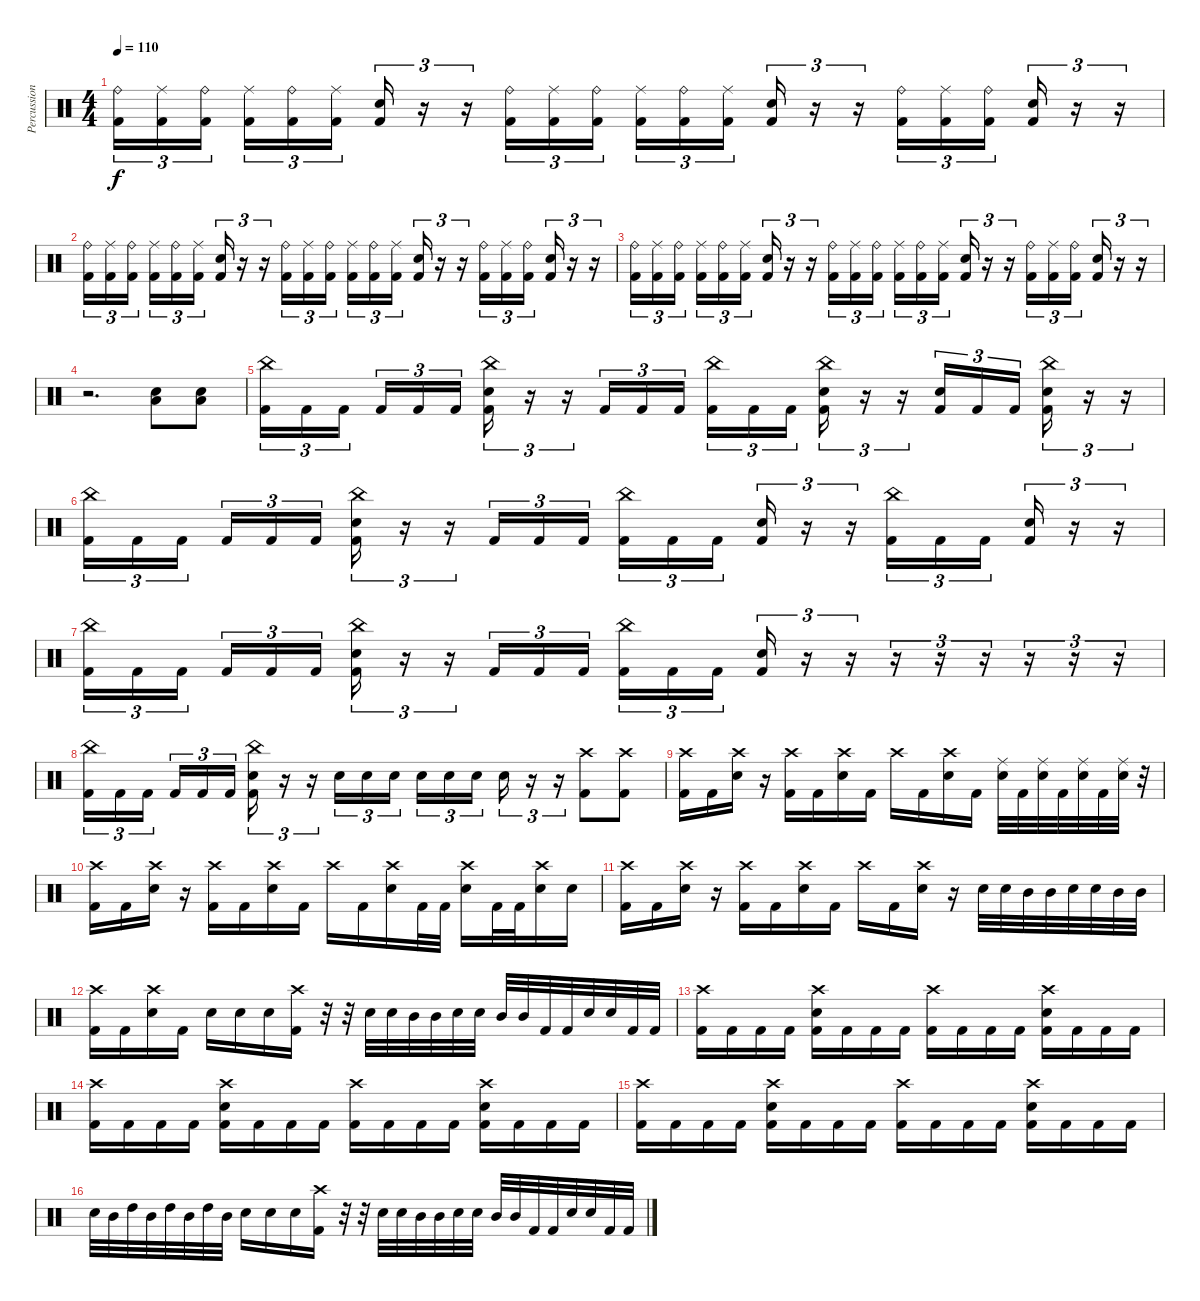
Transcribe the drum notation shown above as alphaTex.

\track ("Percussion" "Percussion") {instrument percussion}
\staff {score}
\articulation defaults
\ts (4 4)
\tempo 110
\clef neutral
\ks c
("Ride (bell)" "Kick (hit) 2").16{tu (3 2) dy f} ("Ride (middle)" "Kick (hit) 2").16{tu (3 2)} ("Ride (bell)" "Kick (hit) 2").16{tu (3 2) beam splitsecondary} ("Ride (middle)" "Kick (hit) 2").16{tu (3 2)} ("Ride (bell)" "Kick (hit) 2").16{tu (3 2)} ("Ride (middle)" "Kick (hit) 2").16{tu (3 2)} ("Electric Snare (hit)" "Kick (hit) 2").16{tu (3 2)} r.16{tu (3 2)} r.16{tu (3 2)} ("Ride (bell)" "Kick (hit) 2").16{tu (3 2)} ("Ride (middle)" "Kick (hit) 2").16{tu (3 2)} ("Ride (bell)" "Kick (hit) 2").16{tu (3 2)} ("Ride (middle)" "Kick (hit) 2").16{tu (3 2)} ("Ride (bell)" "Kick (hit) 2").16{tu (3 2)} ("Ride (middle)" "Kick (hit) 2").16{tu (3 2) beam splitsecondary} ("Electric Snare (hit)" "Kick (hit) 2").16{tu (3 2)} r.16{tu (3 2)} r.16{tu (3 2)} ("Ride (bell)" "Kick (hit) 2").16{tu (3 2)} ("Ride (middle)" "Kick (hit) 2").16{tu (3 2)} ("Ride (bell)" "Kick (hit) 2").16{tu (3 2) beam splitsecondary} ("Electric Snare (hit)" "Kick (hit) 2").16{tu (3 2)} r.16{tu (3 2)} r.16{tu (3 2)} |
("Ride (bell)" "Kick (hit) 2").16{tu (3 2)} ("Ride (middle)" "Kick (hit) 2").16{tu (3 2)} ("Ride (bell)" "Kick (hit) 2").16{tu (3 2) beam splitsecondary} ("Ride (middle)" "Kick (hit) 2").16{tu (3 2)} ("Ride (bell)" "Kick (hit) 2").16{tu (3 2)} ("Ride (middle)" "Kick (hit) 2").16{tu (3 2)} ("Electric Snare (hit)" "Kick (hit) 2").16{tu (3 2)} r.16{tu (3 2)} r.16{tu (3 2)} ("Ride (bell)" "Kick (hit) 2").16{tu (3 2)} ("Ride (middle)" "Kick (hit) 2").16{tu (3 2)} ("Ride (bell)" "Kick (hit) 2").16{tu (3 2)} ("Ride (middle)" "Kick (hit) 2").16{tu (3 2)} ("Ride (bell)" "Kick (hit) 2").16{tu (3 2)} ("Ride (middle)" "Kick (hit) 2").16{tu (3 2) beam splitsecondary} ("Electric Snare (hit)" "Kick (hit) 2").16{tu (3 2)} r.16{tu (3 2)} r.16{tu (3 2)} ("Ride (bell)" "Kick (hit) 2").16{tu (3 2)} ("Ride (middle)" "Kick (hit) 2").16{tu (3 2)} ("Ride (bell)" "Kick (hit) 2").16{tu (3 2) beam splitsecondary} ("Electric Snare (hit)" "Kick (hit) 2").16{tu (3 2)} r.16{tu (3 2)} r.16{tu (3 2)} |
("Ride (bell)" "Kick (hit) 2").16{tu (3 2)} ("Ride (middle)" "Kick (hit) 2").16{tu (3 2)} ("Ride (bell)" "Kick (hit) 2").16{tu (3 2) beam splitsecondary} ("Ride (middle)" "Kick (hit) 2").16{tu (3 2)} ("Ride (bell)" "Kick (hit) 2").16{tu (3 2)} ("Ride (middle)" "Kick (hit) 2").16{tu (3 2)} ("Electric Snare (hit)" "Kick (hit) 2").16{tu (3 2)} r.16{tu (3 2)} r.16{tu (3 2)} ("Ride (bell)" "Kick (hit) 2").16{tu (3 2)} ("Ride (middle)" "Kick (hit) 2").16{tu (3 2)} ("Ride (bell)" "Kick (hit) 2").16{tu (3 2)} ("Ride (middle)" "Kick (hit) 2").16{tu (3 2)} ("Ride (bell)" "Kick (hit) 2").16{tu (3 2)} ("Ride (middle)" "Kick (hit) 2").16{tu (3 2) beam splitsecondary} ("Electric Snare (hit)" "Kick (hit) 2").16{tu (3 2)} r.16{tu (3 2)} r.16{tu (3 2)} ("Ride (bell)" "Kick (hit) 2").16{tu (3 2)} ("Ride (middle)" "Kick (hit) 2").16{tu (3 2)} ("Ride (bell)" "Kick (hit) 2").16{tu (3 2) beam splitsecondary} ("Electric Snare (hit)" "Kick (hit) 2").16{tu (3 2)} r.16{tu (3 2)} r.16{tu (3 2)} |
r.2{d} ("Low Floor Tom (hit)" "Electric Snare (hit)").8 ("Low Floor Tom (hit)" "Electric Snare (hit)").8 |
("China (hit)" "Kick (hit) 2").16{tu (3 2)} "Kick (hit) 2".16{tu (3 2)} "Kick (hit) 2".16{tu (3 2) beam splitsecondary} "Kick (hit) 2".16{tu (3 2)} "Kick (hit) 2".16{tu (3 2)} "Kick (hit) 2".16{tu (3 2)} ("China (hit)" "Electric Snare (hit)" "Kick (hit) 2").16{tu (3 2)} r.16{tu (3 2)} r.16{tu (3 2)} "Kick (hit) 2".16{tu (3 2)} "Kick (hit) 2".16{tu (3 2)} "Kick (hit) 2".16{tu (3 2)} ("China (hit)" "Kick (hit) 2").16{tu (3 2)} "Kick (hit) 2".16{tu (3 2)} "Kick (hit) 2".16{tu (3 2) beam splitsecondary} ("China (hit)" "Electric Snare (hit)" "Kick (hit) 2").16{tu (3 2)} r.16{tu (3 2)} r.16{tu (3 2)} ("Electric Snare (hit)" "Kick (hit) 2").16{tu (3 2)} "Kick (hit) 2".16{tu (3 2)} "Kick (hit) 2".16{tu (3 2) beam splitsecondary} ("China (hit)" "Electric Snare (hit)" "Kick (hit) 2").16{tu (3 2)} r.16{tu (3 2)} r.16{tu (3 2)} |
("China (hit)" "Kick (hit) 2").16{tu (3 2)} "Kick (hit) 2".16{tu (3 2)} "Kick (hit) 2".16{tu (3 2) beam splitsecondary} "Kick (hit) 2".16{tu (3 2)} "Kick (hit) 2".16{tu (3 2)} "Kick (hit) 2".16{tu (3 2)} ("China (hit)" "Electric Snare (hit)" "Kick (hit) 2").16{tu (3 2)} r.16{tu (3 2)} r.16{tu (3 2)} "Kick (hit) 2".16{tu (3 2)} "Kick (hit) 2".16{tu (3 2)} "Kick (hit) 2".16{tu (3 2)} ("China (hit)" "Kick (hit) 2").16{tu (3 2)} "Kick (hit) 2".16{tu (3 2)} "Kick (hit) 2".16{tu (3 2) beam splitsecondary} ("Electric Snare (hit)" "Kick (hit) 2").16{tu (3 2)} r.16{tu (3 2)} r.16{tu (3 2)} ("China (hit)" "Kick (hit) 2").16{tu (3 2)} "Kick (hit) 2".16{tu (3 2)} "Kick (hit) 2".16{tu (3 2) beam splitsecondary} ("Electric Snare (hit)" "Kick (hit) 2").16{tu (3 2)} r.16{tu (3 2)} r.16{tu (3 2)} |
("China (hit)" "Kick (hit) 2").16{tu (3 2)} "Kick (hit) 2".16{tu (3 2)} "Kick (hit) 2".16{tu (3 2) beam splitsecondary} "Kick (hit) 2".16{tu (3 2)} "Kick (hit) 2".16{tu (3 2)} "Kick (hit) 2".16{tu (3 2)} ("China (hit)" "Electric Snare (hit)" "Kick (hit) 2").16{tu (3 2)} r.16{tu (3 2)} r.16{tu (3 2)} "Kick (hit) 2".16{tu (3 2)} "Kick (hit) 2".16{tu (3 2)} "Kick (hit) 2".16{tu (3 2)} ("China (hit)" "Kick (hit) 2").16{tu (3 2)} "Kick (hit) 2".16{tu (3 2)} "Kick (hit) 2".16{tu (3 2) beam splitsecondary} ("Electric Snare (hit)" "Kick (hit) 2").16{tu (3 2)} r.16{tu (3 2)} r.16{tu (3 2)} r.16{tu (3 2)} r.16{tu (3 2)} r.16{tu (3 2)} r.16{tu (3 2)} r.16{tu (3 2)} r.16{tu (3 2)} |
("China (hit)" "Kick (hit) 2").16{tu (3 2)} "Kick (hit) 2".16{tu (3 2)} "Kick (hit) 2".16{tu (3 2) beam splitsecondary} "Kick (hit) 2".16{tu (3 2)} "Kick (hit) 2".16{tu (3 2)} "Kick (hit) 2".16{tu (3 2)} ("China (hit)" "Electric Snare (hit)" "Kick (hit) 2").16{tu (3 2)} r.16{tu (3 2)} r.16{tu (3 2)} "Electric Snare (hit)".16{tu (3 2)} "Electric Snare (hit)".16{tu (3 2)} "Electric Snare (hit)".16{tu (3 2)} "Electric Snare (hit)".16{tu (3 2)} "Electric Snare (hit)".16{tu (3 2)} "Electric Snare (hit)".16{tu (3 2) beam splitsecondary} "Electric Snare (hit)".16{tu (3 2)} r.16{tu (3 2)} r.16{tu (3 2)} ("Crash high (hit)" "Kick (hit) 2").8 ("Crash high (hit)" "Kick (hit) 2").8 |
("Crash high (hit)" "Kick (hit) 2").16 "Kick (hit) 2".16 ("Crash high (hit)" "Electric Snare (hit)").16 r.16 ("Crash high (hit)" "Kick (hit) 2").16 "Kick (hit) 2".16 ("Crash high (hit)" "Electric Snare (hit)").16 "Kick (hit) 2".16 "Crash high (hit)".16 "Kick (hit) 2".16 ("Crash high (hit)" "Electric Snare (hit)").16 "Kick (hit) 2".16 ("Ride (middle)" "Electric Snare (hit)").32 "Kick (hit) 2".32 ("Ride (middle)" "Electric Snare (hit)").32 "Kick (hit) 2".32 ("Ride (middle)" "Electric Snare (hit)").32 "Kick (hit) 2".32 ("Ride (middle)" "Electric Snare (hit)").32 r.32 |
("Crash high (hit)" "Kick (hit) 2").16 "Kick (hit) 2".16 ("Crash high (hit)" "Electric Snare (hit)").16 r.16 ("Crash high (hit)" "Kick (hit) 2").16 "Kick (hit) 2".16 ("Crash high (hit)" "Electric Snare (hit)").16 "Kick (hit) 2".16 "Crash high (hit)".16 "Kick (hit) 2".16 ("Crash high (hit)" "Electric Snare (hit)").16 "Kick (hit) 2".32 "Kick (hit) 2".32 ("Crash high (hit)" "Electric Snare (hit)").16 "Kick (hit) 2".32 "Kick (hit) 2".32 ("Crash high (hit)" "Electric Snare (hit)").16 "Electric Snare (hit)".16 |
("Crash high (hit)" "Kick (hit) 2").16 "Kick (hit) 2".16 ("Crash high (hit)" "Electric Snare (hit)").16 r.16 ("Crash high (hit)" "Kick (hit) 2").16 "Kick (hit) 2".16 ("Crash high (hit)" "Electric Snare (hit)").16 "Kick (hit) 2".16 "Crash high (hit)".16 "Kick (hit) 2".16 ("Crash high (hit)" "Electric Snare (hit)").16 r.16 "Electric Snare (hit)".32 "Electric Snare (hit)".32 "Mid Tom (hit)".32 "Mid Tom (hit)".32 "Electric Snare (hit)".32 "Electric Snare (hit)".32 "Mid Tom (hit)".32 "Mid Tom (hit)".32 |
("Crash high (hit)" "Kick (hit) 2").16 "Kick (hit) 2".16 ("Crash high (hit)" "Electric Snare (hit)").16 "Kick (hit) 2".16 "Electric Snare (hit)".16 "Electric Snare (hit)".16 "Electric Snare (hit)".16 ("Crash high (hit)" "Kick (hit) 2").16 r.32 r.32 "Electric Snare (hit)".32 "Electric Snare (hit)".32 "Mid Tom (hit)".32 "Mid Tom (hit)".32 "Electric Snare (hit)".32 "Electric Snare (hit)".32 "Mid Tom (hit)".32 "Mid Tom (hit)".32 "Kick (hit) 2".32 "Kick (hit) 2".32 "Electric Snare (hit)".32 "Electric Snare (hit)".32 "Kick (hit) 2".32 "Kick (hit) 2".32 |
("Crash high (hit)" "Kick (hit) 2").16 "Kick (hit) 2".16 "Kick (hit) 2".16 "Kick (hit) 2".16 ("Crash high (hit)" "Electric Snare (hit)" "Kick (hit) 2").16 "Kick (hit) 2".16 "Kick (hit) 2".16 "Kick (hit) 2".16 ("Crash high (hit)" "Kick (hit) 2").16 "Kick (hit) 2".16 "Kick (hit) 2".16 "Kick (hit) 2".16 ("Crash high (hit)" "Electric Snare (hit)" "Kick (hit) 2").16 "Kick (hit) 2".16 "Kick (hit) 2".16 "Kick (hit) 2".16 |
("Crash high (hit)" "Kick (hit) 2").16 "Kick (hit) 2".16 "Kick (hit) 2".16 "Kick (hit) 2".16 ("Crash high (hit)" "Electric Snare (hit)" "Kick (hit) 2").16 "Kick (hit) 2".16 "Kick (hit) 2".16 "Kick (hit) 2".16 ("Crash high (hit)" "Kick (hit) 2").16 "Kick (hit) 2".16 "Kick (hit) 2".16 "Kick (hit) 2".16 ("Crash high (hit)" "Electric Snare (hit)" "Kick (hit) 2").16 "Kick (hit) 2".16 "Kick (hit) 2".16 "Kick (hit) 2".16 |
("Crash high (hit)" "Kick (hit) 2").16 "Kick (hit) 2".16 "Kick (hit) 2".16 "Kick (hit) 2".16 ("Crash high (hit)" "Electric Snare (hit)" "Kick (hit) 2").16 "Kick (hit) 2".16 "Kick (hit) 2".16 "Kick (hit) 2".16 ("Crash high (hit)" "Kick (hit) 2").16 "Kick (hit) 2".16 "Kick (hit) 2".16 "Kick (hit) 2".16 ("Crash high (hit)" "Electric Snare (hit)" "Kick (hit) 2").16 "Kick (hit) 2".16 "Kick (hit) 2".16 "Kick (hit) 2".16 |
"Electric Snare (hit)".32 "Mid Tom (hit)".32 "High Tom (hit)".32 "Mid Tom (hit)".32 "High Tom (hit)".32 "Mid Tom (hit)".32 "High Tom (hit)".32 "Mid Tom (hit)".32 "Electric Snare (hit)".16 "Electric Snare (hit)".16 "Electric Snare (hit)".16 ("Crash high (hit)" "Kick (hit) 2").16 r.32 r.32 "Electric Snare (hit)".32 "Electric Snare (hit)".32 "Mid Tom (hit)".32 "Mid Tom (hit)".32 "Electric Snare (hit)".32 "Electric Snare (hit)".32 "Mid Tom (hit)".32 "Mid Tom (hit)".32 "Kick (hit) 2".32 "Kick (hit) 2".32 "Electric Snare (hit)".32 "Electric Snare (hit)".32 "Kick (hit) 2".32 "Kick (hit) 2".32
